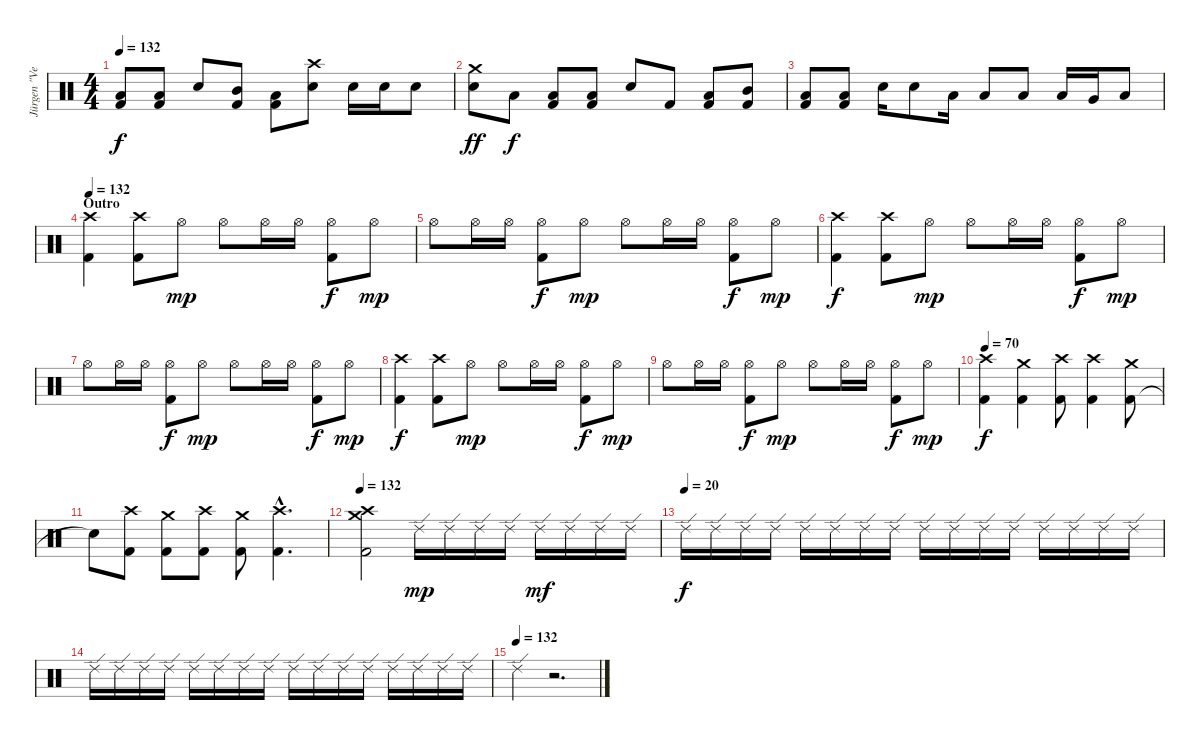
\track ("Jürgen \"Ventor\" Reil" "Jürgen \"Ve") {instrument percussion}
\staff {score}
\articulation defaults
\ts (4 4)
\tempo 132
\clef neutral
\ks c
("Kick (hit) 2" "Low Tom (hit)").8{dy f} ("Kick (hit) 2" "Low Tom (hit)").8 "Snare (hit) 2".8 ("Kick (hit) 2" "Mid Tom (hit)").8 ("Kick (hit) 2" "Low Tom (hit)").8 ("Crash high (hit)" "Snare (hit) 2").8 "Snare (hit) 2".16 "Snare (hit) 2".16 "Snare (hit) 2".8 |
("Crash medium (hit)" "Snare (hit) 2").8{dy ff} "Low Tom (hit)".8{dy f} ("Kick (hit) 2" "Low Tom (hit)").8 ("Kick (hit) 2" "Low Tom (hit)").8 "Snare (hit) 2".8 "Kick (hit) 2".8 ("Kick (hit) 2" "Low Tom (hit)").8 ("Kick (hit) 2" "Mid Tom (hit)").8 |
("Kick (hit) 2" "Low Tom (hit)").8 ("Kick (hit) 2" "Low Tom (hit)").8 "Snare (hit) 2".16 "Snare (hit) 2".8 "Low Tom (hit)".16 "Low Tom (hit)".8 "Low Tom (hit)".8 "Low Tom (hit)".16 "Very Low Tom (hit)".16 "Low Floor Tom (hit)".8 |
\section ("" "Outro")
\tempo 132
("Kick (hit) 2" "Crash high (hit)").4 ("Kick (hit) 2" "Crash high (hit)").8 "Hi-Hat (open)".8{dy mp} "Hi-Hat (open)".8 "Hi-Hat (open)".16 "Hi-Hat (open)".16 ("Kick (hit) 2" "Hi-Hat (open)").8{dy f} "Hi-Hat (open)".8{dy mp} |
"Hi-Hat (open)".8 "Hi-Hat (open)".16 "Hi-Hat (open)".16 ("Kick (hit) 2" "Hi-Hat (open)").8{dy f} "Hi-Hat (open)".8{dy mp} "Hi-Hat (open)".8 "Hi-Hat (open)".16 "Hi-Hat (open)".16 ("Kick (hit) 2" "Hi-Hat (open)").8{dy f} "Hi-Hat (open)".8{dy mp} |
("Kick (hit) 2" "Crash high (hit)").4{dy f} ("Kick (hit) 2" "Crash high (hit)").8 "Hi-Hat (open)".8{dy mp} "Hi-Hat (open)".8 "Hi-Hat (open)".16 "Hi-Hat (open)".16 ("Kick (hit) 2" "Hi-Hat (open)").8{dy f} "Hi-Hat (open)".8{dy mp} |
"Hi-Hat (open)".8 "Hi-Hat (open)".16 "Hi-Hat (open)".16 ("Kick (hit) 2" "Hi-Hat (open)").8{dy f} "Hi-Hat (open)".8{dy mp} "Hi-Hat (open)".8 "Hi-Hat (open)".16 "Hi-Hat (open)".16 ("Kick (hit) 2" "Hi-Hat (open)").8{dy f} "Hi-Hat (open)".8{dy mp} |
("Kick (hit) 2" "Crash high (hit)").4{dy f} ("Kick (hit) 2" "Crash high (hit)").8 "Hi-Hat (open)".8{dy mp} "Hi-Hat (open)".8 "Hi-Hat (open)".16 "Hi-Hat (open)".16 ("Kick (hit) 2" "Hi-Hat (open)").8{dy f} "Hi-Hat (open)".8{dy mp} |
"Hi-Hat (open)".8 "Hi-Hat (open)".16 "Hi-Hat (open)".16 ("Kick (hit) 2" "Hi-Hat (open)").8{dy f} "Hi-Hat (open)".8{dy mp} "Hi-Hat (open)".8 "Hi-Hat (open)".16 "Hi-Hat (open)".16 ("Kick (hit) 2" "Hi-Hat (open)").8{dy f} "Hi-Hat (open)".8{dy mp} |
\tempo 70
("Kick (hit) 2" "Crash high (hit)").4{dy f} ("Kick (hit) 2" "Crash medium (hit)").4 ("Kick (hit) 2" "Crash high (hit)").8 ("Kick (hit) 2" "Crash high (hit)").4 ("Kick (hit) 2" "Crash medium (hit)").8 |
"Snare (hit)"{t}.8 ("Kick (hit) 2" "Crash high (hit)").8 ("Kick (hit) 2" "Crash medium (hit)").8 ("Kick (hit) 2" "Crash high (hit)").8 ("Kick (hit) 2" "Crash medium (hit)").8 ("Kick (hit) 2"{hac} "Crash high (hit)"{hac}).4{d} |
\tempo 132
("Kick (hit) 2" "Crash high (hit)" "Crash medium (hit)").2 "Ride (edge) 2".16{dy mp} "Ride (edge) 2".16 "Ride (edge) 2".16 "Ride (edge) 2".16 "Ride (edge) 2".16{dy mf} "Ride (edge) 2".16 "Ride (edge) 2".16 "Ride (edge) 2".16 |
\tempo (20)
"Ride (edge) 2".16{dy f} "Ride (edge) 2".16 "Ride (edge) 2".16 "Ride (edge) 2".16 "Ride (edge) 2".16 "Ride (edge) 2".16 "Ride (edge) 2".16 "Ride (edge) 2".16 "Ride (edge) 2".16 "Ride (edge) 2".16 "Ride (edge) 2".16 "Ride (edge) 2".16 "Ride (edge) 2".16 "Ride (edge) 2".16 "Ride (edge) 2".16 "Ride (edge) 2".16 |
"Ride (edge) 2".16 "Ride (edge) 2".16 "Ride (edge) 2".16 "Ride (edge) 2".16 "Ride (edge) 2".16 "Ride (edge) 2".16 "Ride (edge) 2".16 "Ride (edge) 2".16 "Ride (edge) 2".16 "Ride (edge) 2".16 "Ride (edge) 2".16 "Ride (edge) 2".16 "Ride (edge) 2".16 "Ride (edge) 2".16 "Ride (edge) 2".16 "Ride (edge) 2".16 |
\tempo (132)
"Ride (edge) 2".4 r.2{d}
